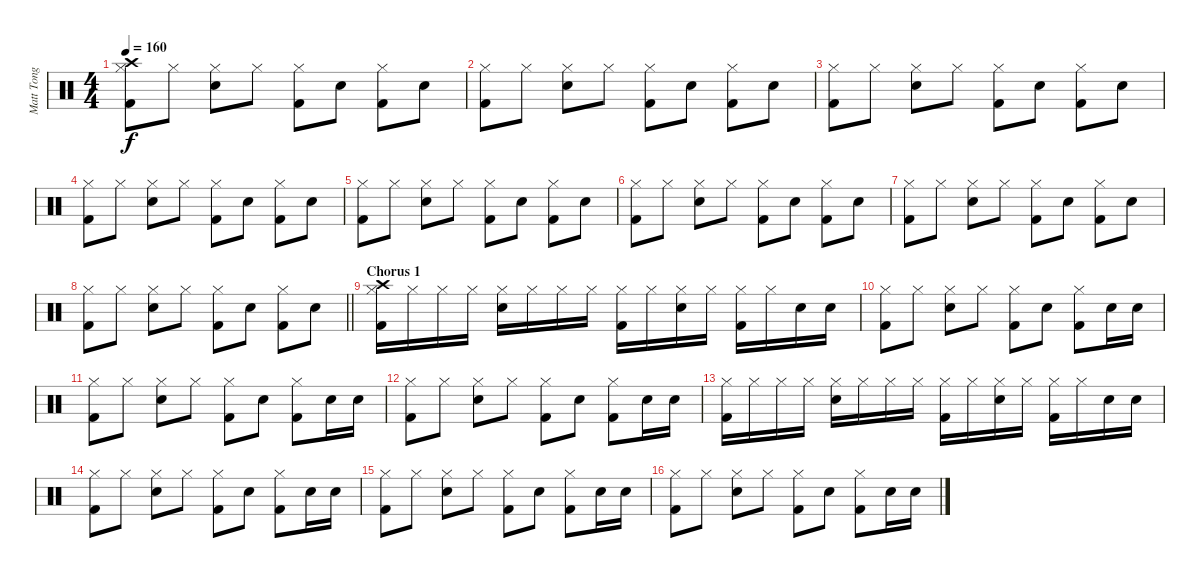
\track ("Matt Tong" "Matt Tong") {instrument percussion}
\staff {score}
\articulation defaults
\ts (4 4)
\tempo 160
\clef neutral
\ks c
("Crash high (hit)" "Hi-Hat (closed)" "Kick (hit) 2").8{dy f} "Hi-Hat (closed)".8 ("Hi-Hat (closed)" "Electric Snare (hit)").8 "Hi-Hat (closed)".8 ("Hi-Hat (closed)" "Kick (hit) 2").8 "Electric Snare (hit)".8 ("Hi-Hat (closed)" "Kick (hit) 2").8 "Electric Snare (hit)".8 |
("Hi-Hat (closed)" "Kick (hit) 2").8 "Hi-Hat (closed)".8 ("Hi-Hat (closed)" "Electric Snare (hit)").8 "Hi-Hat (closed)".8 ("Hi-Hat (closed)" "Kick (hit) 2").8 "Electric Snare (hit)".8 ("Hi-Hat (closed)" "Kick (hit) 2").8 "Electric Snare (hit)".8 |
("Hi-Hat (closed)" "Kick (hit) 2").8 "Hi-Hat (closed)".8 ("Hi-Hat (closed)" "Electric Snare (hit)").8 "Hi-Hat (closed)".8 ("Hi-Hat (closed)" "Kick (hit) 2").8 "Electric Snare (hit)".8 ("Hi-Hat (closed)" "Kick (hit) 2").8 "Electric Snare (hit)".8 |
("Hi-Hat (closed)" "Kick (hit) 2").8 "Hi-Hat (closed)".8 ("Hi-Hat (closed)" "Electric Snare (hit)").8 "Hi-Hat (closed)".8 ("Hi-Hat (closed)" "Kick (hit) 2").8 "Electric Snare (hit)".8 ("Hi-Hat (closed)" "Kick (hit) 2").8 "Electric Snare (hit)".8 |
("Hi-Hat (closed)" "Kick (hit) 2").8 "Hi-Hat (closed)".8 ("Hi-Hat (closed)" "Electric Snare (hit)").8 "Hi-Hat (closed)".8 ("Hi-Hat (closed)" "Kick (hit) 2").8 "Electric Snare (hit)".8 ("Hi-Hat (closed)" "Kick (hit) 2").8 "Electric Snare (hit)".8 |
("Hi-Hat (closed)" "Kick (hit) 2").8 "Hi-Hat (closed)".8 ("Hi-Hat (closed)" "Electric Snare (hit)").8 "Hi-Hat (closed)".8 ("Hi-Hat (closed)" "Kick (hit) 2").8 "Electric Snare (hit)".8 ("Hi-Hat (closed)" "Kick (hit) 2").8 "Electric Snare (hit)".8 |
("Hi-Hat (closed)" "Kick (hit) 2").8 "Hi-Hat (closed)".8 ("Hi-Hat (closed)" "Electric Snare (hit)").8 "Hi-Hat (closed)".8 ("Hi-Hat (closed)" "Kick (hit) 2").8 "Electric Snare (hit)".8 ("Hi-Hat (closed)" "Kick (hit) 2").8 "Electric Snare (hit)".8 |
\barLineRight lightlight
("Hi-Hat (closed)" "Kick (hit) 2").8 "Hi-Hat (closed)".8 ("Hi-Hat (closed)" "Electric Snare (hit)").8 "Hi-Hat (closed)".8 ("Hi-Hat (closed)" "Kick (hit) 2").8 "Electric Snare (hit)".8 ("Hi-Hat (closed)" "Kick (hit) 2").8 "Electric Snare (hit)".8 |
\section ("" "Chorus 1")
("Crash high (hit)" "Hi-Hat (closed)" "Kick (hit) 2").16 "Hi-Hat (closed)".16 "Hi-Hat (closed)".16 "Hi-Hat (closed)".16 ("Hi-Hat (closed)" "Electric Snare (hit)").16 "Hi-Hat (closed)".16 "Hi-Hat (closed)".16 "Hi-Hat (closed)".16 ("Hi-Hat (closed)" "Kick (hit) 2").16 "Hi-Hat (closed)".16 ("Hi-Hat (closed)" "Electric Snare (hit)").16 "Hi-Hat (closed)".16 ("Hi-Hat (closed)" "Kick (hit) 2").16 "Hi-Hat (closed)".16 "Electric Snare (hit)".16 "Electric Snare (hit)".16 |
("Hi-Hat (closed)" "Kick (hit) 2").8 "Hi-Hat (closed)".8 ("Hi-Hat (closed)" "Electric Snare (hit)").8 "Hi-Hat (closed)".8 ("Hi-Hat (closed)" "Kick (hit) 2").8 "Electric Snare (hit)".8 ("Hi-Hat (closed)" "Kick (hit) 2").8 "Electric Snare (hit)".16 "Electric Snare (hit)".16 |
("Hi-Hat (closed)" "Kick (hit) 2").8 "Hi-Hat (closed)".8 ("Hi-Hat (closed)" "Electric Snare (hit)").8 "Hi-Hat (closed)".8 ("Hi-Hat (closed)" "Kick (hit) 2").8 "Electric Snare (hit)".8 ("Hi-Hat (closed)" "Kick (hit) 2").8 "Electric Snare (hit)".16 "Electric Snare (hit)".16 |
("Hi-Hat (closed)" "Kick (hit) 2").8 "Hi-Hat (closed)".8 ("Hi-Hat (closed)" "Electric Snare (hit)").8 "Hi-Hat (closed)".8 ("Hi-Hat (closed)" "Kick (hit) 2").8 "Electric Snare (hit)".8 ("Hi-Hat (closed)" "Kick (hit) 2").8 "Electric Snare (hit)".16 "Electric Snare (hit)".16 |
("Hi-Hat (closed)" "Kick (hit) 2").16 "Hi-Hat (closed)".16 "Hi-Hat (closed)".16 "Hi-Hat (closed)".16 ("Hi-Hat (closed)" "Electric Snare (hit)").16 "Hi-Hat (closed)".16 "Hi-Hat (closed)".16 "Hi-Hat (closed)".16 ("Hi-Hat (closed)" "Kick (hit) 2").16 "Hi-Hat (closed)".16 ("Hi-Hat (closed)" "Electric Snare (hit)").16 "Hi-Hat (closed)".16 ("Hi-Hat (closed)" "Kick (hit) 2").16 "Hi-Hat (closed)".16 "Electric Snare (hit)".16 "Electric Snare (hit)".16 |
("Hi-Hat (closed)" "Kick (hit) 2").8 "Hi-Hat (closed)".8 ("Hi-Hat (closed)" "Electric Snare (hit)").8 "Hi-Hat (closed)".8 ("Hi-Hat (closed)" "Kick (hit) 2").8 "Electric Snare (hit)".8 ("Hi-Hat (closed)" "Kick (hit) 2").8 "Electric Snare (hit)".16 "Electric Snare (hit)".16 |
("Hi-Hat (closed)" "Kick (hit) 2").8 "Hi-Hat (closed)".8 ("Hi-Hat (closed)" "Electric Snare (hit)").8 "Hi-Hat (closed)".8 ("Hi-Hat (closed)" "Kick (hit) 2").8 "Electric Snare (hit)".8 ("Hi-Hat (closed)" "Kick (hit) 2").8 "Electric Snare (hit)".16 "Electric Snare (hit)".16 |
("Hi-Hat (closed)" "Kick (hit) 2").8 "Hi-Hat (closed)".8 ("Hi-Hat (closed)" "Electric Snare (hit)").8 "Hi-Hat (closed)".8 ("Hi-Hat (closed)" "Kick (hit) 2").8 "Electric Snare (hit)".8 ("Hi-Hat (closed)" "Kick (hit) 2").8 "Electric Snare (hit)".16 "Electric Snare (hit)".16
